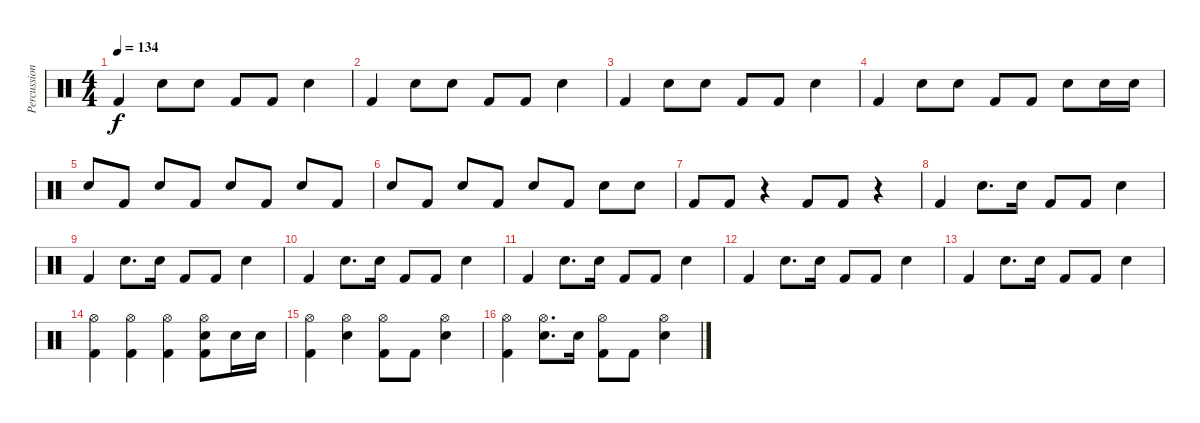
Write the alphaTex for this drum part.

\track ("Percussion" "Percussion") {instrument percussion}
\staff {score}
\articulation defaults
\ts (4 4)
\tempo 134
\clef neutral
\ks c "Kick (hit) 2".4{dy f} "Electric Snare (hit)".8 "Electric Snare (hit)".8 "Kick (hit) 2".8 "Kick (hit) 2".8 "Electric Snare (hit)".4
|
"Kick (hit) 2".4 "Electric Snare (hit)".8 "Electric Snare (hit)".8 "Kick (hit) 2".8 "Kick (hit) 2".8 "Electric Snare (hit)".4 |
"Kick (hit) 2".4 "Electric Snare (hit)".8 "Electric Snare (hit)".8 "Kick (hit) 2".8 "Kick (hit) 2".8 "Electric Snare (hit)".4 |
"Kick (hit) 2".4 "Electric Snare (hit)".8 "Electric Snare (hit)".8 "Kick (hit) 2".8 "Kick (hit) 2".8 "Electric Snare (hit)".8 "Electric Snare (hit)".16 "Electric Snare (hit)".16 |
"Electric Snare (hit)".8 "Kick (hit) 2".8 "Electric Snare (hit)".8 "Kick (hit) 2".8 "Electric Snare (hit)".8 "Kick (hit) 2".8 "Electric Snare (hit)".8 "Kick (hit) 2".8 |
"Electric Snare (hit)".8 "Kick (hit) 2".8 "Electric Snare (hit)".8 "Kick (hit) 2".8 "Electric Snare (hit)".8 "Kick (hit) 2".8 "Electric Snare (hit)".8 "Electric Snare (hit)".8 |
"Kick (hit) 2".8 "Kick (hit) 2".8 r.4 "Kick (hit) 2".8 "Kick (hit) 2".8 r.4 |
"Kick (hit) 2".4 "Electric Snare (hit)".8{d} "Electric Snare (hit)".16 "Kick (hit) 2".8 "Kick (hit) 2".8 "Electric Snare (hit)".4 |
"Kick (hit) 2".4 "Electric Snare (hit)".8{d} "Electric Snare (hit)".16 "Kick (hit) 2".8 "Kick (hit) 2".8 "Electric Snare (hit)".4 |
"Kick (hit) 2".4 "Electric Snare (hit)".8{d} "Electric Snare (hit)".16 "Kick (hit) 2".8 "Kick (hit) 2".8 "Electric Snare (hit)".4 |
"Kick (hit) 2".4 "Electric Snare (hit)".8{d} "Electric Snare (hit)".16 "Kick (hit) 2".8 "Kick (hit) 2".8 "Electric Snare (hit)".4 |
"Kick (hit) 2".4 "Electric Snare (hit)".8{d} "Electric Snare (hit)".16 "Kick (hit) 2".8 "Kick (hit) 2".8 "Electric Snare (hit)".4 |
"Kick (hit) 2".4 "Electric Snare (hit)".8{d} "Electric Snare (hit)".16 "Kick (hit) 2".8 "Kick (hit) 2".8 "Electric Snare (hit)".4 |
("Hi-Hat (open)" "Kick (hit) 2").4 ("Hi-Hat (open)" "Kick (hit) 2").4 ("Hi-Hat (open)" "Kick (hit) 2").4 ("Hi-Hat (open)" "Electric Snare (hit)" "Kick (hit) 2").8 "Electric Snare (hit)".16 "Electric Snare (hit)".16 |
("Hi-Hat (open)" "Kick (hit) 2").4 ("Hi-Hat (open)" "Electric Snare (hit)").4 ("Hi-Hat (open)" "Kick (hit) 2").8 "Kick (hit) 2".8 ("Hi-Hat (open)" "Electric Snare (hit)").4 |
("Hi-Hat (open)" "Kick (hit) 2").4 ("Hi-Hat (open)" "Electric Snare (hit)").8{d} "Electric Snare (hit)".16 ("Hi-Hat (open)" "Kick (hit) 2").8 "Kick (hit) 2".8 ("Hi-Hat (open)" "Electric Snare (hit)").4
